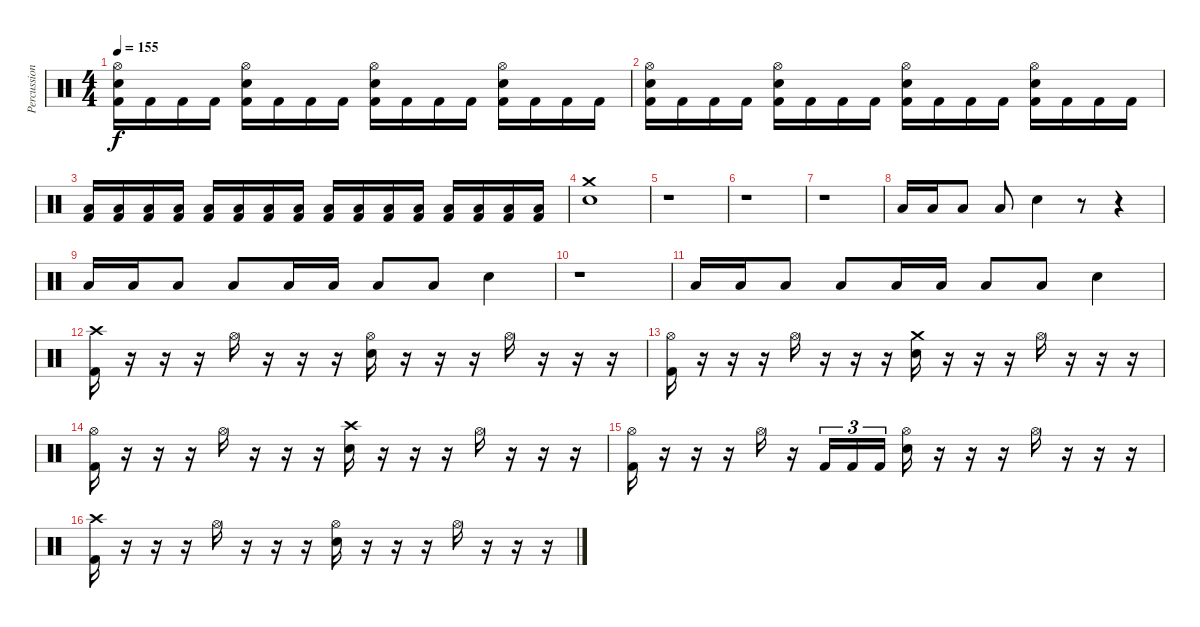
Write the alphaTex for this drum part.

\track ("Percussion" "Percussion") {instrument percussion}
\staff {score}
\articulation defaults
\ts (4 4)
\tempo 155
\clef neutral
\ks c
("Hi-Hat (open)" "Snare (hit) 2" "Kick (hit) 2").16{dy f} "Kick (hit) 2".16 "Kick (hit) 2".16 "Kick (hit) 2".16 ("Hi-Hat (open)" "Snare (hit) 2" "Kick (hit) 2").16 "Kick (hit) 2".16 "Kick (hit) 2".16 "Kick (hit) 2".16 ("Hi-Hat (open)" "Snare (hit) 2" "Kick (hit) 2").16 "Kick (hit) 2".16 "Kick (hit) 2".16 "Kick (hit) 2".16 ("Hi-Hat (open)" "Snare (hit) 2" "Kick (hit) 2").16 "Kick (hit) 2".16 "Kick (hit) 2".16 "Kick (hit) 2".16 |
("Hi-Hat (open)" "Snare (hit) 2" "Kick (hit) 2").16 "Kick (hit) 2".16 "Kick (hit) 2".16 "Kick (hit) 2".16 ("Hi-Hat (open)" "Snare (hit) 2" "Kick (hit) 2").16 "Kick (hit) 2".16 "Kick (hit) 2".16 "Kick (hit) 2".16 ("Hi-Hat (open)" "Snare (hit) 2" "Kick (hit) 2").16 "Kick (hit) 2".16 "Kick (hit) 2".16 "Kick (hit) 2".16 ("Hi-Hat (open)" "Snare (hit) 2" "Kick (hit) 2").16 "Kick (hit) 2".16 "Kick (hit) 2".16 "Kick (hit) 2".16 |
("Low Floor Tom (hit)" "Kick (hit) 2").16 ("Low Floor Tom (hit)" "Kick (hit) 2").16 ("Low Floor Tom (hit)" "Kick (hit) 2").16 ("Low Floor Tom (hit)" "Kick (hit) 2").16 ("Low Floor Tom (hit)" "Kick (hit) 2").16 ("Low Floor Tom (hit)" "Kick (hit) 2").16 ("Low Floor Tom (hit)" "Kick (hit) 2").16 ("Low Floor Tom (hit)" "Kick (hit) 2").16 ("Low Floor Tom (hit)" "Kick (hit) 2").16 ("Low Floor Tom (hit)" "Kick (hit) 2").16 ("Low Floor Tom (hit)" "Kick (hit) 2").16 ("Low Floor Tom (hit)" "Kick (hit) 2").16 ("Low Floor Tom (hit)" "Kick (hit) 2").16 ("Low Floor Tom (hit)" "Kick (hit) 2").16 ("Low Floor Tom (hit)" "Kick (hit) 2").16 ("Low Floor Tom (hit)" "Kick (hit) 2").16 |
("Crash medium (hit)" "Snare (hit) 2").1 |
r.1 |
r.1 |
r.1 |
"Low Floor Tom (hit)".16 "Low Floor Tom (hit)".16 "Low Floor Tom (hit)".8 "Low Floor Tom (hit)".8 "Snare (hit) 2".4 r.8 r.4 |
"Low Floor Tom (hit)".16 "Low Floor Tom (hit)".16 "Low Floor Tom (hit)".8 "Low Floor Tom (hit)".8 "Low Floor Tom (hit)".16 "Low Floor Tom (hit)".16 "Low Floor Tom (hit)".8 "Low Floor Tom (hit)".8 "Snare (hit) 2".4 |
r.1 |
"Low Floor Tom (hit)".16 "Low Floor Tom (hit)".16 "Low Floor Tom (hit)".8 "Low Floor Tom (hit)".8 "Low Floor Tom (hit)".16 "Low Floor Tom (hit)".16 "Low Floor Tom (hit)".8 "Low Floor Tom (hit)".8 "Snare (hit) 2".4 |
("Crash high (hit)" "Kick (hit) 2").16 r.16 r.16 r.16 "Hi-Hat (open)".16 r.16 r.16 r.16 ("Hi-Hat (open)" "Snare (hit) 2").16 r.16 r.16 r.16 "Hi-Hat (open)".16 r.16 r.16 r.16 |
("Hi-Hat (open)" "Kick (hit) 2").16 r.16 r.16 r.16 "Hi-Hat (open)".16 r.16 r.16 r.16 ("Crash medium (hit)" "Snare (hit) 2").16 r.16 r.16 r.16 "Hi-Hat (open)".16 r.16 r.16 r.16 |
("Hi-Hat (open)" "Kick (hit) 2").16 r.16 r.16 r.16 "Hi-Hat (open)".16 r.16 r.16 r.16 ("Crash high (hit)" "Snare (hit) 2").16 r.16 r.16 r.16 "Hi-Hat (open)".16 r.16 r.16 r.16 |
("Hi-Hat (open)" "Kick (hit) 2").16 r.16 r.16 r.16 "Hi-Hat (open)".16 r.16 "Kick (hit) 2".16{tu (3 2)} "Kick (hit) 2".16{tu (3 2)} "Kick (hit) 2".16{tu (3 2)} ("Hi-Hat (open)" "Snare (hit) 2").16 r.16 r.16 r.16 "Hi-Hat (open)".16 r.16 r.16 r.16 |
("Crash high (hit)" "Kick (hit) 2").16 r.16 r.16 r.16 "Hi-Hat (open)".16 r.16 r.16 r.16 ("Hi-Hat (open)" "Snare (hit) 2").16 r.16 r.16 r.16 "Hi-Hat (open)".16 r.16 r.16 r.16
